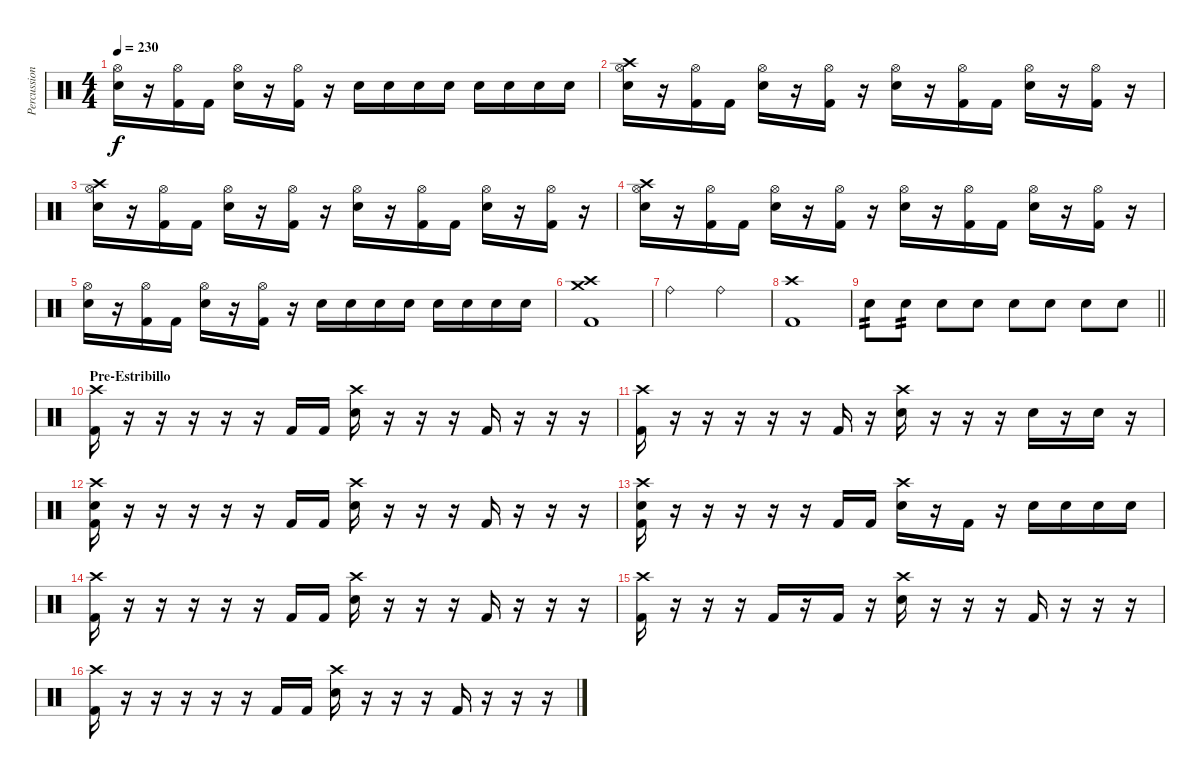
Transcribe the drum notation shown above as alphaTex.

\track ("Percussion" "Percussion") {instrument percussion}
\staff {score}
\articulation defaults
\ts (4 4)
\tempo 230
\clef neutral
\ks c
("Hi-Hat (open)" "Electric Snare (hit)").16{dy f} r.16 ("Hi-Hat (open)" "Kick (hit) 2").16 "Kick (hit) 2".16 ("Hi-Hat (open)" "Electric Snare (hit)").16 r.16 ("Hi-Hat (open)" "Kick (hit) 2").16 r.16 "Electric Snare (hit)".16 "Electric Snare (hit)".16 "Electric Snare (hit)".16 "Electric Snare (hit)".16 "Electric Snare (hit)".16 "Electric Snare (hit)".16 "Electric Snare (hit)".16 "Electric Snare (hit)".16 |
("Crash high (hit)" "Hi-Hat (open)" "Electric Snare (hit)").16 r.16 ("Hi-Hat (open)" "Kick (hit) 2").16 "Kick (hit) 2".16 ("Hi-Hat (open)" "Electric Snare (hit)").16 r.16 ("Hi-Hat (open)" "Kick (hit) 2").16 r.16 ("Hi-Hat (open)" "Electric Snare (hit)").16 r.16 ("Hi-Hat (open)" "Kick (hit) 2").16 "Kick (hit) 2".16 ("Hi-Hat (open)" "Electric Snare (hit)").16 r.16 ("Hi-Hat (open)" "Kick (hit) 2").16 r.16 |
("Crash high (hit)" "Hi-Hat (open)" "Electric Snare (hit)").16 r.16 ("Hi-Hat (open)" "Kick (hit) 2").16 "Kick (hit) 2".16 ("Hi-Hat (open)" "Electric Snare (hit)").16 r.16 ("Hi-Hat (open)" "Kick (hit) 2").16 r.16 ("Hi-Hat (open)" "Electric Snare (hit)").16 r.16 ("Hi-Hat (open)" "Kick (hit) 2").16 "Kick (hit) 2".16 ("Hi-Hat (open)" "Electric Snare (hit)").16 r.16 ("Hi-Hat (open)" "Kick (hit) 2").16 r.16 |
("Crash high (hit)" "Hi-Hat (open)" "Electric Snare (hit)").16 r.16 ("Hi-Hat (open)" "Kick (hit) 2").16 "Kick (hit) 2".16 ("Hi-Hat (open)" "Electric Snare (hit)").16 r.16 ("Hi-Hat (open)" "Kick (hit) 2").16 r.16 ("Hi-Hat (open)" "Electric Snare (hit)").16 r.16 ("Hi-Hat (open)" "Kick (hit) 2").16 "Kick (hit) 2".16 ("Hi-Hat (open)" "Electric Snare (hit)").16 r.16 ("Hi-Hat (open)" "Kick (hit) 2").16 r.16 |
("Hi-Hat (open)" "Electric Snare (hit)").16 r.16 ("Hi-Hat (open)" "Kick (hit) 2").16 "Kick (hit) 2".16 ("Hi-Hat (open)" "Electric Snare (hit)").16 r.16 ("Hi-Hat (open)" "Kick (hit) 2").16 r.16 "Electric Snare (hit)".16 "Electric Snare (hit)".16 "Electric Snare (hit)".16 "Electric Snare (hit)".16 "Electric Snare (hit)".16 "Electric Snare (hit)".16 "Electric Snare (hit)".16 "Electric Snare (hit)".16 |
("Crash high (hit)" "Crash medium (hit)" "Kick (hit) 2").1 |
"Ride (bell)".2 "Ride (bell)".2 |
("Crash high (hit)" "Kick (hit) 2").1 |
\barLineRight lightlight "Electric Snare (hit)".8{tp 2} "Electric Snare (hit)".8{tp 2} "Electric Snare (hit)".8 "Electric Snare (hit)".8 "Electric Snare (hit)".8 "Electric Snare (hit)".8 "Electric Snare (hit)".8 "Electric Snare (hit)".8
|
\section ("" "Pre-Estribillo")
("Crash high (hit)" "Kick (hit) 2").16 r.16 r.16 r.16 r.16 r.16 "Kick (hit) 2".16 "Kick (hit) 2".16 ("Crash high (hit)" "Electric Snare (hit)").16 r.16 r.16 r.16 "Kick (hit) 2".16 r.16 r.16 r.16 |
("Crash high (hit)" "Kick (hit) 2").16 r.16 r.16 r.16 r.16 r.16 "Kick (hit) 2".16 r.16 ("Crash high (hit)" "Electric Snare (hit)").16 r.16 r.16 r.16 "Electric Snare (hit)".16 r.16 "Electric Snare (hit)".16 r.16 |
("Crash high (hit)" "Electric Snare (hit)" "Kick (hit) 2").16 r.16 r.16 r.16 r.16 r.16 "Kick (hit) 2".16 "Kick (hit) 2".16 ("Crash high (hit)" "Electric Snare (hit)").16 r.16 r.16 r.16 "Kick (hit) 2".16 r.16 r.16 r.16 |
("Crash high (hit)" "Electric Snare (hit)" "Kick (hit) 2").16 r.16 r.16 r.16 r.16 r.16 "Kick (hit) 2".16 "Kick (hit) 2".16 ("Crash high (hit)" "Electric Snare (hit)").16 r.16 "Kick (hit) 2".16 r.16 "Electric Snare (hit)".16 "Electric Snare (hit)".16 "Electric Snare (hit)".16 "Electric Snare (hit)".16 |
("Crash high (hit)" "Kick (hit) 2").16 r.16 r.16 r.16 r.16 r.16 "Kick (hit) 2".16 "Kick (hit) 2".16 ("Crash high (hit)" "Electric Snare (hit)").16 r.16 r.16 r.16 "Kick (hit) 2".16 r.16 r.16 r.16 |
("Crash high (hit)" "Kick (hit) 2").16 r.16 r.16 r.16 "Kick (hit) 2".16 r.16 "Kick (hit) 2".16 r.16 ("Crash high (hit)" "Electric Snare (hit)").16 r.16 r.16 r.16 "Kick (hit) 2".16 r.16 r.16 r.16 |
("Crash high (hit)" "Kick (hit) 2").16 r.16 r.16 r.16 r.16 r.16 "Kick (hit) 2".16 "Kick (hit) 2".16 ("Crash high (hit)" "Electric Snare (hit)").16 r.16 r.16 r.16 "Kick (hit) 2".16 r.16 r.16 r.16
